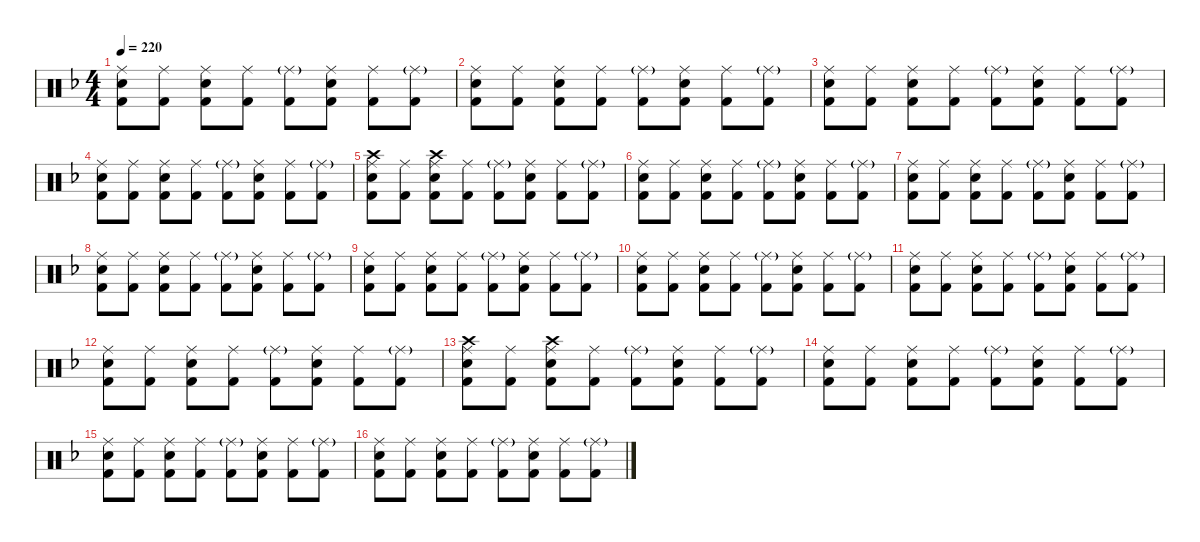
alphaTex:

\hideDynamics
\bracketExtendMode nobrackets
\singleTrackTrackNamePolicy hidden
\multiTrackTrackNamePolicy hidden
\firstSystemTrackNameMode fullname
\firstSystemTrackNameOrientation horizontal
\otherSystemsTrackNameOrientation horizontal
\track ("Drumkit" "Drums") {instrument percussion}
\staff {score}
\articulation defaults
\ts (4 4)
\tempo 220
\clef neutral
\ks dminor
("Ride (middle)"{acc forcenatural} "Snare (hit) 2"{acc forcenatural} "Kick (hit) 2"{acc forcenatural}).8{dy mf beam Down} ("Ride (middle)"{acc forcenatural} "Kick (hit) 2"{acc forcenatural}).8{beam Down} ("Ride (middle)"{acc forcenatural} "Snare (hit) 2"{acc forcenatural} "Kick (hit) 2"{acc forcenatural}).8{beam Down} ("Ride (middle)"{acc forcenatural} "Kick (hit) 2"{acc forcenatural}).8{beam Down} ("Ride (middle)"{g acc forcenatural} "Kick (hit) 2"{acc forcenatural}).8{dy f beam Down} ("Ride (middle)"{acc forcenatural} "Snare (hit) 2"{acc forcenatural} "Kick (hit) 2"{acc forcenatural}).8{dy mf beam Down} ("Ride (middle)"{acc forcenatural} "Kick (hit) 2"{acc forcenatural}).8{beam Down} ("Ride (middle)"{g acc forcenatural} "Kick (hit) 2"{acc forcenatural}).8{dy f beam Down} |
("Ride (middle)"{acc forcenatural} "Snare (hit) 2"{acc forcenatural} "Kick (hit) 2"{acc forcenatural}).8{dy mf beam Down} ("Ride (middle)"{acc forcenatural} "Kick (hit) 2"{acc forcenatural}).8{beam Down} ("Ride (middle)"{acc forcenatural} "Snare (hit) 2"{acc forcenatural} "Kick (hit) 2"{acc forcenatural}).8{beam Down} ("Ride (middle)"{acc forcenatural} "Kick (hit) 2"{acc forcenatural}).8{beam Down} ("Ride (middle)"{g acc forcenatural} "Kick (hit) 2"{acc forcenatural}).8{dy f beam Down} ("Ride (middle)"{acc forcenatural} "Snare (hit) 2"{acc forcenatural} "Kick (hit) 2"{acc forcenatural}).8{dy mf beam Down} ("Ride (middle)"{acc forcenatural} "Kick (hit) 2"{acc forcenatural}).8{beam Down} ("Ride (middle)"{g acc forcenatural} "Kick (hit) 2"{acc forcenatural}).8{dy f beam Down} |
("Ride (middle)"{acc forcenatural} "Snare (hit) 2"{acc forcenatural} "Kick (hit) 2"{acc forcenatural}).8{dy mf beam Down} ("Ride (middle)"{acc forcenatural} "Kick (hit) 2"{acc forcenatural}).8{beam Down} ("Ride (middle)"{acc forcenatural} "Snare (hit) 2"{acc forcenatural} "Kick (hit) 2"{acc forcenatural}).8{beam Down} ("Ride (middle)"{acc forcenatural} "Kick (hit) 2"{acc forcenatural}).8{beam Down} ("Ride (middle)"{g acc forcenatural} "Kick (hit) 2"{acc forcenatural}).8{dy f beam Down} ("Ride (middle)"{acc forcenatural} "Snare (hit) 2"{acc forcenatural} "Kick (hit) 2"{acc forcenatural}).8{dy mf beam Down} ("Ride (middle)"{acc forcenatural} "Kick (hit) 2"{acc forcenatural}).8{beam Down} ("Ride (middle)"{g acc forcenatural} "Kick (hit) 2"{acc forcenatural}).8{dy f beam Down} |
("Ride (middle)"{acc forcenatural} "Snare (hit) 2"{acc forcenatural} "Kick (hit) 2"{acc forcenatural}).8{dy mf beam Down} ("Ride (middle)"{acc forcenatural} "Kick (hit) 2"{acc forcenatural}).8{beam Down} ("Ride (middle)"{acc forcenatural} "Snare (hit) 2"{acc forcenatural} "Kick (hit) 2"{acc forcenatural}).8{beam Down} ("Ride (middle)"{acc forcenatural} "Kick (hit) 2"{acc forcenatural}).8{beam Down} ("Ride (middle)"{g acc forcenatural} "Kick (hit) 2"{acc forcenatural}).8{dy f beam Down} ("Ride (middle)"{acc forcenatural} "Snare (hit) 2"{acc forcenatural} "Kick (hit) 2"{acc forcenatural}).8{dy mf beam Down} ("Ride (middle)"{acc forcenatural} "Kick (hit) 2"{acc forcenatural}).8{beam Down} ("Ride (middle)"{g acc forcenatural} "Kick (hit) 2"{acc forcenatural}).8{dy f beam Down} |
("Crash high (hit)"{acc forcenatural} "Ride (middle)"{acc forcenatural} "Snare (hit) 2"{acc forcenatural} "Kick (hit) 2"{acc forcenatural}).8{beam Down} ("Ride (middle)"{acc forcenatural} "Kick (hit) 2"{acc forcenatural}).8{dy mf beam Down} ("Crash high (hit)"{acc forcenatural} "Ride (middle)"{acc forcenatural} "Snare (hit) 2"{acc forcenatural} "Kick (hit) 2"{acc forcenatural}).8{dy f beam Down} ("Ride (middle)"{acc forcenatural} "Kick (hit) 2"{acc forcenatural}).8{dy mf beam Down} ("Ride (middle)"{g acc forcenatural} "Kick (hit) 2"{acc forcenatural}).8{dy f beam Down} ("Ride (middle)"{acc forcenatural} "Snare (hit) 2"{acc forcenatural} "Kick (hit) 2"{acc forcenatural}).8{dy mf beam Down} ("Ride (middle)"{acc forcenatural} "Kick (hit) 2"{acc forcenatural}).8{beam Down} ("Ride (middle)"{g acc forcenatural} "Kick (hit) 2"{acc forcenatural}).8{dy f beam Down} |
("Ride (middle)"{acc forcenatural} "Snare (hit) 2"{acc forcenatural} "Kick (hit) 2"{acc forcenatural}).8{dy mf beam Down} ("Ride (middle)"{acc forcenatural} "Kick (hit) 2"{acc forcenatural}).8{beam Down} ("Ride (middle)"{acc forcenatural} "Snare (hit) 2"{acc forcenatural} "Kick (hit) 2"{acc forcenatural}).8{beam Down} ("Ride (middle)"{acc forcenatural} "Kick (hit) 2"{acc forcenatural}).8{beam Down} ("Ride (middle)"{g acc forcenatural} "Kick (hit) 2"{acc forcenatural}).8{dy f beam Down} ("Ride (middle)"{acc forcenatural} "Snare (hit) 2"{acc forcenatural} "Kick (hit) 2"{acc forcenatural}).8{dy mf beam Down} ("Ride (middle)"{acc forcenatural} "Kick (hit) 2"{acc forcenatural}).8{beam Down} ("Ride (middle)"{g acc forcenatural} "Kick (hit) 2"{acc forcenatural}).8{dy f beam Down} |
("Ride (middle)"{acc forcenatural} "Snare (hit) 2"{acc forcenatural} "Kick (hit) 2"{acc forcenatural}).8{dy mf beam Down} ("Ride (middle)"{acc forcenatural} "Kick (hit) 2"{acc forcenatural}).8{beam Down} ("Ride (middle)"{acc forcenatural} "Snare (hit) 2"{acc forcenatural} "Kick (hit) 2"{acc forcenatural}).8{beam Down} ("Ride (middle)"{acc forcenatural} "Kick (hit) 2"{acc forcenatural}).8{beam Down} ("Ride (middle)"{g acc forcenatural} "Kick (hit) 2"{acc forcenatural}).8{dy f beam Down} ("Ride (middle)"{acc forcenatural} "Snare (hit) 2"{acc forcenatural} "Kick (hit) 2"{acc forcenatural}).8{dy mf beam Down} ("Ride (middle)"{acc forcenatural} "Kick (hit) 2"{acc forcenatural}).8{beam Down} ("Ride (middle)"{g acc forcenatural} "Kick (hit) 2"{acc forcenatural}).8{dy f beam Down} |
("Ride (middle)"{acc forcenatural} "Snare (hit) 2"{acc forcenatural} "Kick (hit) 2"{acc forcenatural}).8{dy mf beam Down} ("Ride (middle)"{acc forcenatural} "Kick (hit) 2"{acc forcenatural}).8{beam Down} ("Ride (middle)"{acc forcenatural} "Snare (hit) 2"{acc forcenatural} "Kick (hit) 2"{acc forcenatural}).8{beam Down} ("Ride (middle)"{acc forcenatural} "Kick (hit) 2"{acc forcenatural}).8{beam Down} ("Ride (middle)"{g acc forcenatural} "Kick (hit) 2"{acc forcenatural}).8{dy f beam Down} ("Ride (middle)"{acc forcenatural} "Snare (hit) 2"{acc forcenatural} "Kick (hit) 2"{acc forcenatural}).8{dy mf beam Down} ("Ride (middle)"{acc forcenatural} "Kick (hit) 2"{acc forcenatural}).8{beam Down} ("Ride (middle)"{g acc forcenatural} "Kick (hit) 2"{acc forcenatural}).8{dy f beam Down} |
("Ride (middle)"{acc forcenatural} "Snare (hit) 2"{acc forcenatural} "Kick (hit) 2"{acc forcenatural}).8{dy mf beam Down} ("Ride (middle)"{acc forcenatural} "Kick (hit) 2"{acc forcenatural}).8{beam Down} ("Ride (middle)"{acc forcenatural} "Snare (hit) 2"{acc forcenatural} "Kick (hit) 2"{acc forcenatural}).8{beam Down} ("Ride (middle)"{acc forcenatural} "Kick (hit) 2"{acc forcenatural}).8{beam Down} ("Ride (middle)"{g acc forcenatural} "Kick (hit) 2"{acc forcenatural}).8{dy f beam Down} ("Ride (middle)"{acc forcenatural} "Snare (hit) 2"{acc forcenatural} "Kick (hit) 2"{acc forcenatural}).8{dy mf beam Down} ("Ride (middle)"{acc forcenatural} "Kick (hit) 2"{acc forcenatural}).8{beam Down} ("Ride (middle)"{g acc forcenatural} "Kick (hit) 2"{acc forcenatural}).8{dy f beam Down} |
("Ride (middle)"{acc forcenatural} "Snare (hit) 2"{acc forcenatural} "Kick (hit) 2"{acc forcenatural}).8{dy mf beam Down} ("Ride (middle)"{acc forcenatural} "Kick (hit) 2"{acc forcenatural}).8{beam Down} ("Ride (middle)"{acc forcenatural} "Snare (hit) 2"{acc forcenatural} "Kick (hit) 2"{acc forcenatural}).8{beam Down} ("Ride (middle)"{acc forcenatural} "Kick (hit) 2"{acc forcenatural}).8{beam Down} ("Ride (middle)"{g acc forcenatural} "Kick (hit) 2"{acc forcenatural}).8{dy f beam Down} ("Ride (middle)"{acc forcenatural} "Snare (hit) 2"{acc forcenatural} "Kick (hit) 2"{acc forcenatural}).8{dy mf beam Down} ("Ride (middle)"{acc forcenatural} "Kick (hit) 2"{acc forcenatural}).8{beam Down} ("Ride (middle)"{g acc forcenatural} "Kick (hit) 2"{acc forcenatural}).8{dy f beam Down} |
("Ride (middle)"{acc forcenatural} "Snare (hit) 2"{acc forcenatural} "Kick (hit) 2"{acc forcenatural}).8{dy mf beam Down} ("Ride (middle)"{acc forcenatural} "Kick (hit) 2"{acc forcenatural}).8{beam Down} ("Ride (middle)"{acc forcenatural} "Snare (hit) 2"{acc forcenatural} "Kick (hit) 2"{acc forcenatural}).8{beam Down} ("Ride (middle)"{acc forcenatural} "Kick (hit) 2"{acc forcenatural}).8{beam Down} ("Ride (middle)"{g acc forcenatural} "Kick (hit) 2"{acc forcenatural}).8{dy f beam Down} ("Ride (middle)"{acc forcenatural} "Snare (hit) 2"{acc forcenatural} "Kick (hit) 2"{acc forcenatural}).8{dy mf beam Down} ("Ride (middle)"{acc forcenatural} "Kick (hit) 2"{acc forcenatural}).8{beam Down} ("Ride (middle)"{g acc forcenatural} "Kick (hit) 2"{acc forcenatural}).8{dy f beam Down} |
("Ride (middle)"{acc forcenatural} "Snare (hit) 2"{acc forcenatural} "Kick (hit) 2"{acc forcenatural}).8{dy mf beam Down} ("Ride (middle)"{acc forcenatural} "Kick (hit) 2"{acc forcenatural}).8{beam Down} ("Ride (middle)"{acc forcenatural} "Snare (hit) 2"{acc forcenatural} "Kick (hit) 2"{acc forcenatural}).8{beam Down} ("Ride (middle)"{acc forcenatural} "Kick (hit) 2"{acc forcenatural}).8{beam Down} ("Ride (middle)"{g acc forcenatural} "Kick (hit) 2"{acc forcenatural}).8{dy f beam Down} ("Ride (middle)"{acc forcenatural} "Snare (hit) 2"{acc forcenatural} "Kick (hit) 2"{acc forcenatural}).8{dy mf beam Down} ("Ride (middle)"{acc forcenatural} "Kick (hit) 2"{acc forcenatural}).8{beam Down} ("Ride (middle)"{g acc forcenatural} "Kick (hit) 2"{acc forcenatural}).8{dy f beam Down} |
("Crash high (hit)"{acc forcenatural} "Ride (middle)"{acc forcenatural} "Snare (hit) 2"{acc forcenatural} "Kick (hit) 2"{acc forcenatural}).8{beam Down} ("Ride (middle)"{acc forcenatural} "Kick (hit) 2"{acc forcenatural}).8{dy mf beam Down} ("Crash high (hit)"{acc forcenatural} "Ride (middle)"{acc forcenatural} "Snare (hit) 2"{acc forcenatural} "Kick (hit) 2"{acc forcenatural}).8{dy f beam Down} ("Ride (middle)"{acc forcenatural} "Kick (hit) 2"{acc forcenatural}).8{dy mf beam Down} ("Ride (middle)"{g acc forcenatural} "Kick (hit) 2"{acc forcenatural}).8{dy f beam Down} ("Ride (middle)"{acc forcenatural} "Snare (hit) 2"{acc forcenatural} "Kick (hit) 2"{acc forcenatural}).8{dy mf beam Down} ("Ride (middle)"{acc forcenatural} "Kick (hit) 2"{acc forcenatural}).8{beam Down} ("Ride (middle)"{g acc forcenatural} "Kick (hit) 2"{acc forcenatural}).8{dy f beam Down} |
("Ride (middle)"{acc forcenatural} "Snare (hit) 2"{acc forcenatural} "Kick (hit) 2"{acc forcenatural}).8{dy mf beam Down} ("Ride (middle)"{acc forcenatural} "Kick (hit) 2"{acc forcenatural}).8{beam Down} ("Ride (middle)"{acc forcenatural} "Snare (hit) 2"{acc forcenatural} "Kick (hit) 2"{acc forcenatural}).8{beam Down} ("Ride (middle)"{acc forcenatural} "Kick (hit) 2"{acc forcenatural}).8{beam Down} ("Ride (middle)"{g acc forcenatural} "Kick (hit) 2"{acc forcenatural}).8{dy f beam Down} ("Ride (middle)"{acc forcenatural} "Snare (hit) 2"{acc forcenatural} "Kick (hit) 2"{acc forcenatural}).8{dy mf beam Down} ("Ride (middle)"{acc forcenatural} "Kick (hit) 2"{acc forcenatural}).8{beam Down} ("Ride (middle)"{g acc forcenatural} "Kick (hit) 2"{acc forcenatural}).8{dy f beam Down} |
("Ride (middle)"{acc forcenatural} "Snare (hit) 2"{acc forcenatural} "Kick (hit) 2"{acc forcenatural}).8{dy mf beam Down} ("Ride (middle)"{acc forcenatural} "Kick (hit) 2"{acc forcenatural}).8{beam Down} ("Ride (middle)"{acc forcenatural} "Snare (hit) 2"{acc forcenatural} "Kick (hit) 2"{acc forcenatural}).8{beam Down} ("Ride (middle)"{acc forcenatural} "Kick (hit) 2"{acc forcenatural}).8{beam Down} ("Ride (middle)"{g acc forcenatural} "Kick (hit) 2"{acc forcenatural}).8{dy f beam Down} ("Ride (middle)"{acc forcenatural} "Snare (hit) 2"{acc forcenatural} "Kick (hit) 2"{acc forcenatural}).8{dy mf beam Down} ("Ride (middle)"{acc forcenatural} "Kick (hit) 2"{acc forcenatural}).8{beam Down} ("Ride (middle)"{g acc forcenatural} "Kick (hit) 2"{acc forcenatural}).8{dy f beam Down} |
("Ride (middle)"{acc forcenatural} "Snare (hit) 2"{acc forcenatural} "Kick (hit) 2"{acc forcenatural}).8{dy mf beam Down} ("Ride (middle)"{acc forcenatural} "Kick (hit) 2"{acc forcenatural}).8{beam Down} ("Ride (middle)"{acc forcenatural} "Snare (hit) 2"{acc forcenatural} "Kick (hit) 2"{acc forcenatural}).8{beam Down} ("Ride (middle)"{acc forcenatural} "Kick (hit) 2"{acc forcenatural}).8{beam Down} ("Ride (middle)"{g acc forcenatural} "Kick (hit) 2"{acc forcenatural}).8{dy f beam Down} ("Ride (middle)"{acc forcenatural} "Snare (hit) 2"{acc forcenatural} "Kick (hit) 2"{acc forcenatural}).8{dy mf beam Down} ("Ride (middle)"{acc forcenatural} "Kick (hit) 2"{acc forcenatural}).8{beam Down} ("Ride (middle)"{g acc forcenatural} "Kick (hit) 2"{acc forcenatural}).8{dy f beam Down}
